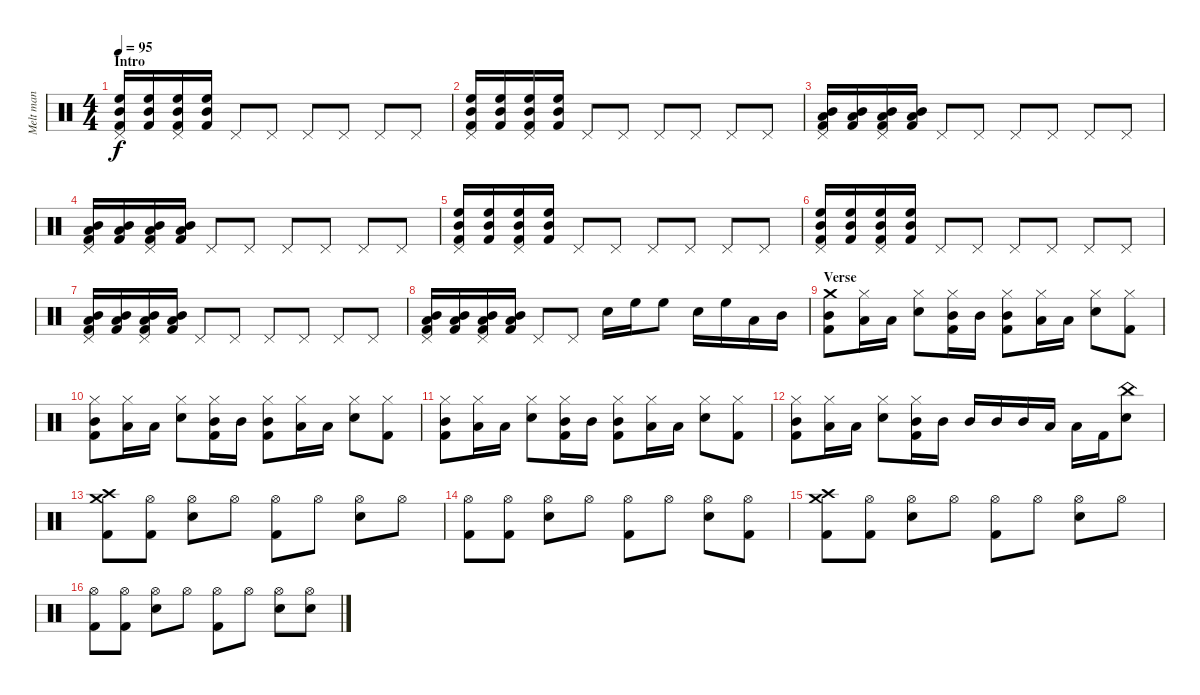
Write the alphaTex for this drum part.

\track ("Melt man" "Melt man") {instrument percussion}
\staff {score}
\articulation defaults
\ts (4 4)
\section ("" "Intro")
\tempo 95
\clef neutral
\ks c
("Pedal Hi-Hat (hit)" "Mid Tom (hit)" "High Floor Tom (hit)" "Kick (hit) 2").16{dy f} ("Mid Tom (hit)" "High Floor Tom (hit)" "Kick (hit) 2").16 ("Pedal Hi-Hat (hit)" "Mid Tom (hit)" "High Floor Tom (hit)" "Kick (hit) 2").16 ("Mid Tom (hit)" "High Floor Tom (hit)" "Kick (hit) 2").16 "Pedal Hi-Hat (hit)".8 "Pedal Hi-Hat (hit)".8 "Pedal Hi-Hat (hit)".8 "Pedal Hi-Hat (hit)".8 "Pedal Hi-Hat (hit)".8 "Pedal Hi-Hat (hit)".8 |
("Pedal Hi-Hat (hit)" "Mid Tom (hit)" "High Floor Tom (hit)" "Kick (hit) 2").16 ("Mid Tom (hit)" "High Floor Tom (hit)" "Kick (hit) 2").16 ("Pedal Hi-Hat (hit)" "Mid Tom (hit)" "High Floor Tom (hit)" "Kick (hit) 2").16 ("Mid Tom (hit)" "High Floor Tom (hit)" "Kick (hit) 2").16 "Pedal Hi-Hat (hit)".8 "Pedal Hi-Hat (hit)".8 "Pedal Hi-Hat (hit)".8 "Pedal Hi-Hat (hit)".8 "Pedal Hi-Hat (hit)".8 "Pedal Hi-Hat (hit)".8 |
("Pedal Hi-Hat (hit)" "Mid Tom (hit)" "Low Tom (hit)" "Kick (hit) 2").16 ("Mid Tom (hit)" "Low Tom (hit)" "Kick (hit) 2").16 ("Pedal Hi-Hat (hit)" "Mid Tom (hit)" "Low Tom (hit)" "Kick (hit) 2").16 ("Mid Tom (hit)" "Low Tom (hit)" "Kick (hit) 2").16 "Pedal Hi-Hat (hit)".8 "Pedal Hi-Hat (hit)".8 "Pedal Hi-Hat (hit)".8 "Pedal Hi-Hat (hit)".8 "Pedal Hi-Hat (hit)".8 "Pedal Hi-Hat (hit)".8 |
("Pedal Hi-Hat (hit)" "Mid Tom (hit)" "Low Tom (hit)" "Kick (hit) 2").16 ("Mid Tom (hit)" "Low Tom (hit)" "Kick (hit) 2").16 ("Pedal Hi-Hat (hit)" "Mid Tom (hit)" "Low Tom (hit)" "Kick (hit) 2").16 ("Mid Tom (hit)" "Low Tom (hit)" "Kick (hit) 2").16 "Pedal Hi-Hat (hit)".8 "Pedal Hi-Hat (hit)".8 "Pedal Hi-Hat (hit)".8 "Pedal Hi-Hat (hit)".8 "Pedal Hi-Hat (hit)".8 "Pedal Hi-Hat (hit)".8 |
("Pedal Hi-Hat (hit)" "Mid Tom (hit)" "High Floor Tom (hit)" "Kick (hit) 2").16 ("Mid Tom (hit)" "High Floor Tom (hit)" "Kick (hit) 2").16 ("Pedal Hi-Hat (hit)" "Mid Tom (hit)" "High Floor Tom (hit)" "Kick (hit) 2").16 ("Mid Tom (hit)" "High Floor Tom (hit)" "Kick (hit) 2").16 "Pedal Hi-Hat (hit)".8 "Pedal Hi-Hat (hit)".8 "Pedal Hi-Hat (hit)".8 "Pedal Hi-Hat (hit)".8 "Pedal Hi-Hat (hit)".8 "Pedal Hi-Hat (hit)".8 |
("Pedal Hi-Hat (hit)" "Mid Tom (hit)" "High Floor Tom (hit)" "Kick (hit) 2").16 ("Mid Tom (hit)" "High Floor Tom (hit)" "Kick (hit) 2").16 ("Pedal Hi-Hat (hit)" "Mid Tom (hit)" "High Floor Tom (hit)" "Kick (hit) 2").16 ("Mid Tom (hit)" "High Floor Tom (hit)" "Kick (hit) 2").16 "Pedal Hi-Hat (hit)".8 "Pedal Hi-Hat (hit)".8 "Pedal Hi-Hat (hit)".8 "Pedal Hi-Hat (hit)".8 "Pedal Hi-Hat (hit)".8 "Pedal Hi-Hat (hit)".8 |
("Pedal Hi-Hat (hit)" "Mid Tom (hit)" "Low Tom (hit)" "Kick (hit) 2").16 ("Mid Tom (hit)" "Low Tom (hit)" "Kick (hit) 2").16 ("Pedal Hi-Hat (hit)" "Mid Tom (hit)" "Low Tom (hit)" "Kick (hit) 2").16 ("Mid Tom (hit)" "Low Tom (hit)" "Kick (hit) 2").16 "Pedal Hi-Hat (hit)".8 "Pedal Hi-Hat (hit)".8 "Pedal Hi-Hat (hit)".8 "Pedal Hi-Hat (hit)".8 "Pedal Hi-Hat (hit)".8 "Pedal Hi-Hat (hit)".8 |
("Pedal Hi-Hat (hit)" "Mid Tom (hit)" "Low Tom (hit)" "Kick (hit) 2").16 ("Mid Tom (hit)" "Low Tom (hit)" "Kick (hit) 2").16 ("Pedal Hi-Hat (hit)" "Mid Tom (hit)" "Low Tom (hit)" "Kick (hit) 2").16 ("Mid Tom (hit)" "Low Tom (hit)" "Kick (hit) 2").16 "Pedal Hi-Hat (hit)".8 "Pedal Hi-Hat (hit)".8 "Snare (hit) 2".16 "High Floor Tom (hit)".16 "High Floor Tom (hit)".8 "Snare (hit) 2".16 "High Floor Tom (hit)".16 "Low Tom (hit)".16 "Mid Tom (hit)".16 |
\section ("" "Verse")
("Crash medium (hit)" "Mid Tom (hit)" "Kick (hit) 2").8 ("Hi-Hat (closed)" "Low Tom (hit)").16 "Low Tom (hit)".16 ("Hi-Hat (closed)" "Snare (hit) 2").8 ("Hi-Hat (closed)" "Mid Tom (hit)" "Kick (hit) 2").16 "Mid Tom (hit)".16 ("Hi-Hat (closed)" "Mid Tom (hit)" "Kick (hit) 2").8 ("Hi-Hat (closed)" "Low Tom (hit)").16 "Low Tom (hit)".16 ("Hi-Hat (closed)" "Snare (hit) 2").8 ("Hi-Hat (closed)" "Kick (hit) 2").8 |
("Hi-Hat (closed)" "Mid Tom (hit)" "Kick (hit) 2").8 ("Hi-Hat (closed)" "Low Tom (hit)").16 "Low Tom (hit)".16 ("Hi-Hat (closed)" "Snare (hit) 2").8 ("Hi-Hat (closed)" "Mid Tom (hit)" "Kick (hit) 2").16 "Mid Tom (hit)".16 ("Hi-Hat (closed)" "Mid Tom (hit)" "Kick (hit) 2").8 ("Hi-Hat (closed)" "Low Tom (hit)").16 "Low Tom (hit)".16 ("Hi-Hat (closed)" "Snare (hit) 2").8 ("Hi-Hat (closed)" "Kick (hit) 2").8 |
("Hi-Hat (closed)" "Mid Tom (hit)" "Kick (hit) 2").8 ("Hi-Hat (closed)" "Low Tom (hit)").16 "Low Tom (hit)".16 ("Hi-Hat (closed)" "Snare (hit) 2").8 ("Hi-Hat (closed)" "Mid Tom (hit)" "Kick (hit) 2").16 "Mid Tom (hit)".16 ("Hi-Hat (closed)" "Mid Tom (hit)" "Kick (hit) 2").8 ("Hi-Hat (closed)" "Low Tom (hit)").16 "Low Tom (hit)".16 ("Hi-Hat (closed)" "Snare (hit) 2").8 ("Hi-Hat (closed)" "Kick (hit) 2").8 |
("Hi-Hat (closed)" "Mid Tom (hit)" "Kick (hit) 2").8 ("Hi-Hat (closed)" "Low Tom (hit)").16 "Low Tom (hit)".16 ("Hi-Hat (closed)" "Snare (hit) 2").8 ("Hi-Hat (closed)" "Mid Tom (hit)" "Kick (hit) 2").16 "Mid Tom (hit)".16 "Mid Tom (hit)".16 "Mid Tom (hit)".16 "Mid Tom (hit)".16 "Low Tom (hit)".16 "Low Tom (hit)".16 "Kick (hit) 2".16 ("China (hit)" "Snare (hit) 2").8 |
("Crash medium (hit)" "Crash high (hit)" "Kick (hit) 2").8 ("Hi-Hat (open)" "Kick (hit) 2").8 ("Hi-Hat (open)" "Snare (hit) 2").8 "Hi-Hat (open)".8 ("Hi-Hat (open)" "Kick (hit) 2").8 "Hi-Hat (open)".8 ("Hi-Hat (open)" "Snare (hit) 2").8 "Hi-Hat (open)".8 |
("Hi-Hat (open)" "Kick (hit) 2").8 ("Hi-Hat (open)" "Kick (hit) 2").8 ("Hi-Hat (open)" "Snare (hit) 2").8 "Hi-Hat (open)".8 ("Hi-Hat (open)" "Kick (hit) 2").8 "Hi-Hat (open)".8 ("Hi-Hat (open)" "Snare (hit) 2").8 ("Hi-Hat (open)" "Kick (hit) 2").8 |
("Crash medium (hit)" "Crash high (hit)" "Kick (hit) 2").8 ("Hi-Hat (open)" "Kick (hit) 2").8 ("Hi-Hat (open)" "Snare (hit) 2").8 "Hi-Hat (open)".8 ("Hi-Hat (open)" "Kick (hit) 2").8 "Hi-Hat (open)".8 ("Hi-Hat (open)" "Snare (hit) 2").8 "Hi-Hat (open)".8 |
("Hi-Hat (open)" "Kick (hit) 2").8 ("Hi-Hat (open)" "Kick (hit) 2").8 ("Hi-Hat (open)" "Snare (hit) 2").8 "Hi-Hat (open)".8 ("Hi-Hat (open)" "Kick (hit) 2").8 "Hi-Hat (open)".8 ("Hi-Hat (open)" "Snare (hit) 2").8 ("Hi-Hat (open)" "Snare (hit) 2").8
